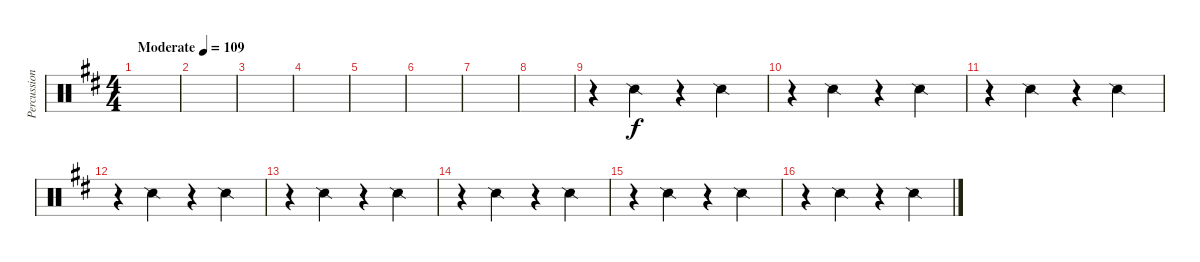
\track ("Percussions" "Percussion") {instrument percussion}
\staff {score}
\articulation defaults
\ts (4 4)
\tempo (109 "Moderate")
\clef neutral
\ks d
|
|
|
|
|
|
|
|
r.4 "Snare (side stick) 2".4 r.4 "Snare (side stick) 2".4 |
r.4 "Snare (side stick) 2".4 r.4 "Snare (side stick) 2".4 |
r.4 "Snare (side stick) 2".4 r.4 "Snare (side stick) 2".4 |
r.4 "Snare (side stick) 2".4 r.4 "Snare (side stick) 2".4 |
r.4 "Snare (side stick) 2".4 r.4 "Snare (side stick) 2".4 |
r.4 "Snare (side stick) 2".4 r.4 "Snare (side stick) 2".4 |
r.4 "Snare (side stick) 2".4 r.4 "Snare (side stick) 2".4 |
r.4 "Snare (side stick) 2".4 r.4 "Snare (side stick) 2".4
